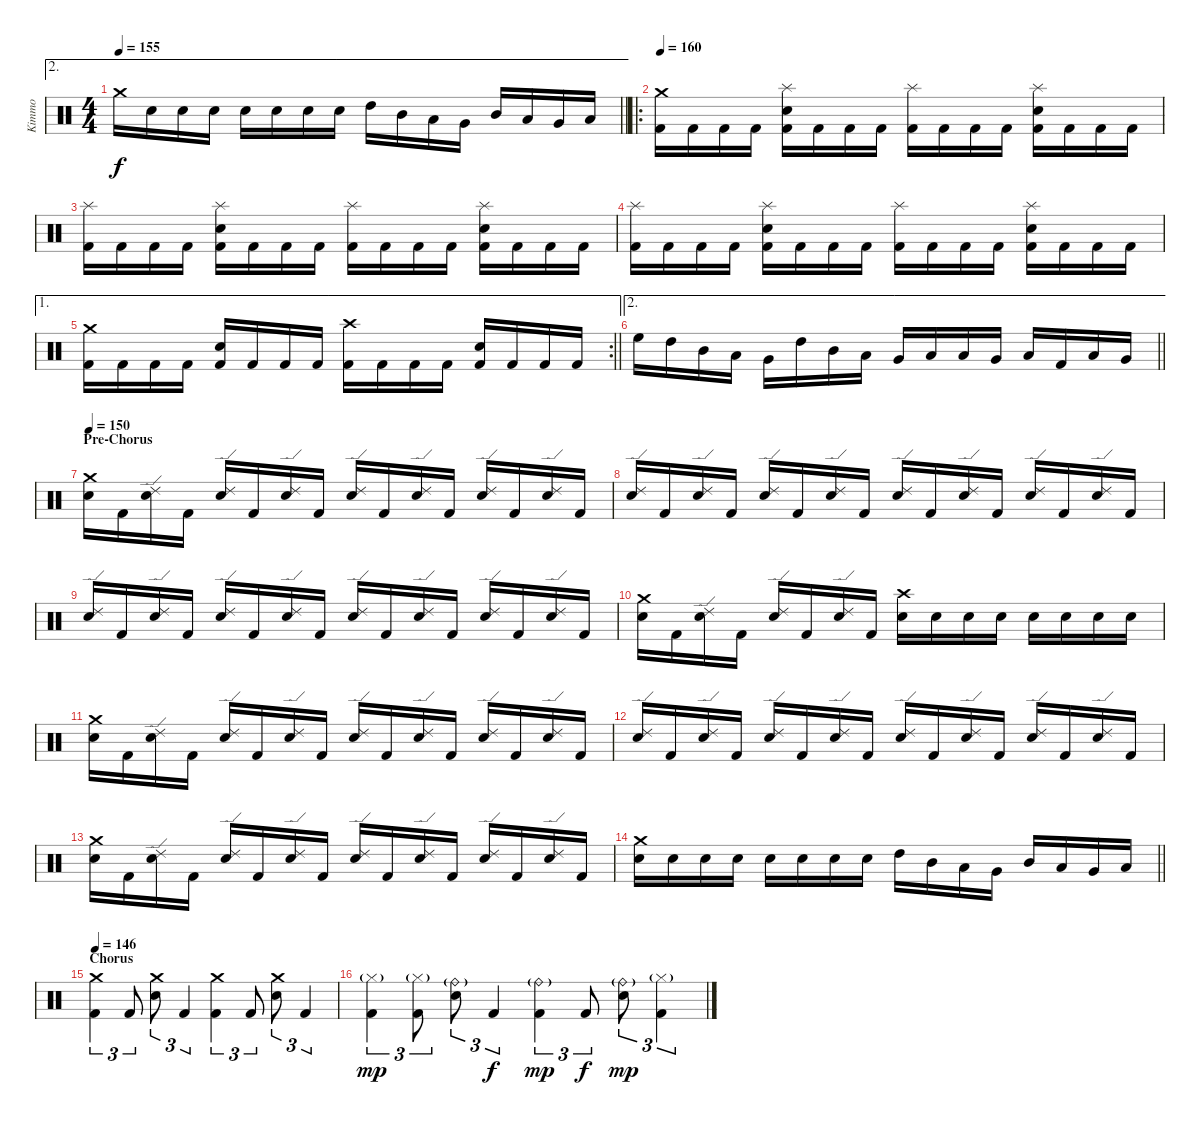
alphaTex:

\track ("Kimmo" "Kimmo") {instrument percussion}
\staff {score}
\articulation defaults
\ae 2
\ts (4 4)
\tempo 155
\clef neutral
\barLineRight lightlight
\ks c "Crash medium (hit)".16{dy f} "Snare (hit) 2".16 "Snare (hit) 2".16 "Snare (hit) 2".16 "Snare (hit) 2".16 "Snare (hit) 2".16 "Snare (hit) 2".16 "Snare (hit) 2".16 "High Tom (hit)".16 "Mid Tom (hit)".16 "Low Tom (hit)".16 "Very Low Tom (hit)".16 "Mid Tom (hit)".16 "Low Tom (hit)".16 "Very Low Tom (hit)".16 "Low Floor Tom (hit)".16
|
\ro
\section ("" "")
\tempo 160
("Kick (hit) 2" "Crash medium (hit)").16 "Kick (hit) 2".16 "Kick (hit) 2".16 "Kick (hit) 2".16 ("Kick (hit) 2" "Snare (hit) 2" "Splash (hit)").16 "Kick (hit) 2".16 "Kick (hit) 2".16 "Kick (hit) 2".16 ("Kick (hit) 2" "Splash (hit)").16 "Kick (hit) 2".16 "Kick (hit) 2".16 "Kick (hit) 2".16 ("Kick (hit) 2" "Snare (hit) 2" "Splash (hit)").16 "Kick (hit) 2".16 "Kick (hit) 2".16 "Kick (hit) 2".16 |
("Kick (hit) 2" "Splash (hit)").16 "Kick (hit) 2".16 "Kick (hit) 2".16 "Kick (hit) 2".16 ("Kick (hit) 2" "Snare (hit) 2" "Splash (hit)").16 "Kick (hit) 2".16 "Kick (hit) 2".16 "Kick (hit) 2".16 ("Kick (hit) 2" "Splash (hit)").16 "Kick (hit) 2".16 "Kick (hit) 2".16 "Kick (hit) 2".16 ("Kick (hit) 2" "Snare (hit) 2" "Splash (hit)").16 "Kick (hit) 2".16 "Kick (hit) 2".16 "Kick (hit) 2".16 |
("Kick (hit) 2" "Splash (hit)").16 "Kick (hit) 2".16 "Kick (hit) 2".16 "Kick (hit) 2".16 ("Kick (hit) 2" "Snare (hit) 2" "Splash (hit)").16 "Kick (hit) 2".16 "Kick (hit) 2".16 "Kick (hit) 2".16 ("Kick (hit) 2" "Splash (hit)").16 "Kick (hit) 2".16 "Kick (hit) 2".16 "Kick (hit) 2".16 ("Kick (hit) 2" "Snare (hit) 2" "Splash (hit)").16 "Kick (hit) 2".16 "Kick (hit) 2".16 "Kick (hit) 2".16 |
\ae 1
\rc 2
\barLineRight lightlight
("Kick (hit) 2" "Crash medium (hit)").16 "Kick (hit) 2".16 "Kick (hit) 2".16 "Kick (hit) 2".16 ("Kick (hit) 2" "Snare (hit) 2").16 "Kick (hit) 2".16 "Kick (hit) 2".16 "Kick (hit) 2".16 ("Kick (hit) 2" "Crash high (hit)").16 "Kick (hit) 2".16 "Kick (hit) 2".16 "Kick (hit) 2".16 ("Kick (hit) 2" "Snare (hit) 2").16 "Kick (hit) 2".16 "Kick (hit) 2".16 "Kick (hit) 2".16 |
\ae 2
\barLineRight lightlight "High Floor Tom (hit)".16 "High Tom (hit)".16 "Mid Tom (hit)".16 "Low Tom (hit)".16 "Very Low Tom (hit)".16 "High Tom (hit)".16 "Mid Tom (hit)".16 "Low Tom (hit)".16 "Very Low Tom (hit)".16 "Low Floor Tom (hit)".16 "Low Tom (hit)".16 "Very Low Tom (hit)".16 "Low Floor Tom (hit)".16 "Kick (hit) 2".16 "Low Tom (hit)".16 "Very Low Tom (hit)".16
|
\section ("" "Pre-Chorus")
\tempo 150
("Snare (hit) 2" "Crash medium (hit)").16 "Kick (hit) 2".16 ("Snare (hit) 2" "Ride (edge) 2").16 "Kick (hit) 2".16 ("Snare (hit) 2" "Ride (edge) 2").16 "Kick (hit) 2".16 ("Snare (hit) 2" "Ride (edge) 2").16 "Kick (hit) 2".16 ("Snare (hit) 2" "Ride (edge) 2").16 "Kick (hit) 2".16 ("Snare (hit) 2" "Ride (edge) 2").16 "Kick (hit) 2".16 ("Snare (hit) 2" "Ride (edge) 2").16 "Kick (hit) 2".16 ("Snare (hit) 2" "Ride (edge) 2").16 "Kick (hit) 2".16 |
("Snare (hit) 2" "Ride (edge) 2").16 "Kick (hit) 2".16 ("Snare (hit) 2" "Ride (edge) 2").16 "Kick (hit) 2".16 ("Snare (hit) 2" "Ride (edge) 2").16 "Kick (hit) 2".16 ("Snare (hit) 2" "Ride (edge) 2").16 "Kick (hit) 2".16 ("Snare (hit) 2" "Ride (edge) 2").16 "Kick (hit) 2".16 ("Snare (hit) 2" "Ride (edge) 2").16 "Kick (hit) 2".16 ("Snare (hit) 2" "Ride (edge) 2").16 "Kick (hit) 2".16 ("Snare (hit) 2" "Ride (edge) 2").16 "Kick (hit) 2".16 |
("Snare (hit) 2" "Ride (edge) 2").16 "Kick (hit) 2".16 ("Snare (hit) 2" "Ride (edge) 2").16 "Kick (hit) 2".16 ("Snare (hit) 2" "Ride (edge) 2").16 "Kick (hit) 2".16 ("Snare (hit) 2" "Ride (edge) 2").16 "Kick (hit) 2".16 ("Snare (hit) 2" "Ride (edge) 2").16 "Kick (hit) 2".16 ("Snare (hit) 2" "Ride (edge) 2").16 "Kick (hit) 2".16 ("Snare (hit) 2" "Ride (edge) 2").16 "Kick (hit) 2".16 ("Snare (hit) 2" "Ride (edge) 2").16 "Kick (hit) 2".16 |
("Snare (hit) 2" "Crash medium (hit)").16 "Kick (hit) 2".16 ("Snare (hit) 2" "Ride (edge) 2").16 "Kick (hit) 2".16 ("Snare (hit) 2" "Ride (edge) 2").16 "Kick (hit) 2".16 ("Snare (hit) 2" "Ride (edge) 2").16 "Kick (hit) 2".16 ("Snare (hit) 2" "Crash high (hit)").16 "Snare (hit) 2".16 "Snare (hit) 2".16 "Snare (hit) 2".16 "Snare (hit) 2".16 "Snare (hit) 2".16 "Snare (hit) 2".16 "Snare (hit) 2".16 |
("Snare (hit) 2" "Crash medium (hit)").16 "Kick (hit) 2".16 ("Snare (hit) 2" "Ride (edge) 2").16 "Kick (hit) 2".16 ("Snare (hit) 2" "Ride (edge) 2").16 "Kick (hit) 2".16 ("Snare (hit) 2" "Ride (edge) 2").16 "Kick (hit) 2".16 ("Snare (hit) 2" "Ride (edge) 2").16 "Kick (hit) 2".16 ("Snare (hit) 2" "Ride (edge) 2").16 "Kick (hit) 2".16 ("Snare (hit) 2" "Ride (edge) 2").16 "Kick (hit) 2".16 ("Snare (hit) 2" "Ride (edge) 2").16 "Kick (hit) 2".16 |
("Snare (hit) 2" "Ride (edge) 2").16 "Kick (hit) 2".16 ("Snare (hit) 2" "Ride (edge) 2").16 "Kick (hit) 2".16 ("Snare (hit) 2" "Ride (edge) 2").16 "Kick (hit) 2".16 ("Snare (hit) 2" "Ride (edge) 2").16 "Kick (hit) 2".16 ("Snare (hit) 2" "Ride (edge) 2").16 "Kick (hit) 2".16 ("Snare (hit) 2" "Ride (edge) 2").16 "Kick (hit) 2".16 ("Snare (hit) 2" "Ride (edge) 2").16 "Kick (hit) 2".16 ("Snare (hit) 2" "Ride (edge) 2").16 "Kick (hit) 2".16 |
("Snare (hit) 2" "Crash medium (hit)").16 "Kick (hit) 2".16 ("Snare (hit) 2" "Ride (edge) 2").16 "Kick (hit) 2".16 ("Snare (hit) 2" "Ride (edge) 2").16 "Kick (hit) 2".16 ("Snare (hit) 2" "Ride (edge) 2").16 "Kick (hit) 2".16 ("Snare (hit) 2" "Ride (edge) 2").16 "Kick (hit) 2".16 ("Snare (hit) 2" "Ride (edge) 2").16 "Kick (hit) 2".16 ("Snare (hit) 2" "Ride (edge) 2").16 "Kick (hit) 2".16 ("Snare (hit) 2" "Ride (edge) 2").16 "Kick (hit) 2".16 |
\barLineRight lightlight
("Snare (hit) 2" "Crash medium (hit)").16 "Snare (hit) 2".16 "Snare (hit) 2".16 "Snare (hit) 2".16 "Snare (hit) 2".16 "Snare (hit) 2".16 "Snare (hit) 2".16 "Snare (hit) 2".16 "High Tom (hit)".16 "Mid Tom (hit)".16 "Low Tom (hit)".16 "Very Low Tom (hit)".16 "Mid Tom (hit)".16 "Low Tom (hit)".16 "Very Low Tom (hit)".16 "Low Floor Tom (hit)".16 |
\section ("" "Chorus")
\tempo 146
("Kick (hit) 2" "Crash medium (hit)").4{tu (3 2)} "Kick (hit) 2".8{tu (3 2)} ("Snare (hit) 2" "Crash medium (hit)").8{tu (3 2)} "Kick (hit) 2".4{tu (3 2)} ("Kick (hit) 2" "Crash medium (hit)").4{tu (3 2)} "Kick (hit) 2".8{tu (3 2)} ("Snare (hit) 2" "Crash medium (hit)").8{tu (3 2)} "Kick (hit) 2".4{tu (3 2)} |
("Kick (hit) 2" "Hi-Hat (closed)"{g}).4{tu (3 2) dy mp} ("Kick (hit) 2" "Hi-Hat (closed)"{g}).8{tu (3 2)} ("Snare (hit) 2" "Ride (bell)"{g}).8{tu (3 2)} "Kick (hit) 2".4{tu (3 2) dy f} ("Kick (hit) 2" "Ride (bell)"{g}).4{tu (3 2) dy mp} "Kick (hit) 2".8{tu (3 2) dy f} ("Snare (hit) 2" "Ride (bell)"{g}).8{tu (3 2) dy mp} ("Kick (hit) 2" "Hi-Hat (closed)"{g}).4{tu (3 2)}
